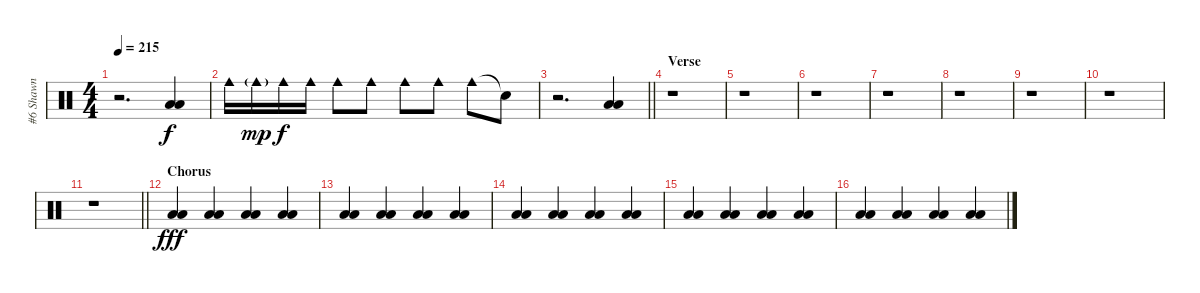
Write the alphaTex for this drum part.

\track ("#6 Shawn" "#6 Shawn") {instrument percussion}
\staff {score}
\articulation defaults
\ts (4 4)
\tempo 215
\clef neutral
\ks c
r.2{d dy f} ("Low Floor Tom (hit)" "Low Floor Tom (hit)").4 |
"Cowbell medium (hit)".16 "Cowbell medium (hit)"{g}.16{dy mp} "Cowbell medium (hit)".16{dy f} "Cowbell medium (hit)".16 "Cowbell medium (hit)".8 "Cowbell medium (hit)".8 "Cowbell medium (hit)".8 "Cowbell medium (hit)".8 "Cowbell medium (hit)".8 "Snare (hit)"{t}.8 |
\barLineRight lightlight
r.2{d} ("Low Floor Tom (hit)" "Low Floor Tom (hit)").4 |
\section ("" "Verse")
r.1 |
r.1 |
r.1 |
r.1 |
r.1 |
r.1 |
r.1 |
\barLineRight lightlight
r.1 |
\section ("" "Chorus")
("Low Floor Tom (hit)" "Low Floor Tom (hit)").4{dy fff} ("Low Floor Tom (hit)" "Low Floor Tom (hit)").4 ("Low Floor Tom (hit)" "Low Floor Tom (hit)").4 ("Low Floor Tom (hit)" "Low Floor Tom (hit)").4 |
("Low Floor Tom (hit)" "Low Floor Tom (hit)").4 ("Low Floor Tom (hit)" "Low Floor Tom (hit)").4 ("Low Floor Tom (hit)" "Low Floor Tom (hit)").4 ("Low Floor Tom (hit)" "Low Floor Tom (hit)").4 |
("Low Floor Tom (hit)" "Low Floor Tom (hit)").4 ("Low Floor Tom (hit)" "Low Floor Tom (hit)").4 ("Low Floor Tom (hit)" "Low Floor Tom (hit)").4 ("Low Floor Tom (hit)" "Low Floor Tom (hit)").4 |
("Low Floor Tom (hit)" "Low Floor Tom (hit)").4 ("Low Floor Tom (hit)" "Low Floor Tom (hit)").4 ("Low Floor Tom (hit)" "Low Floor Tom (hit)").4 ("Low Floor Tom (hit)" "Low Floor Tom (hit)").4 |
("Low Floor Tom (hit)" "Low Floor Tom (hit)").4 ("Low Floor Tom (hit)" "Low Floor Tom (hit)").4 ("Low Floor Tom (hit)" "Low Floor Tom (hit)").4 ("Low Floor Tom (hit)" "Low Floor Tom (hit)").4
